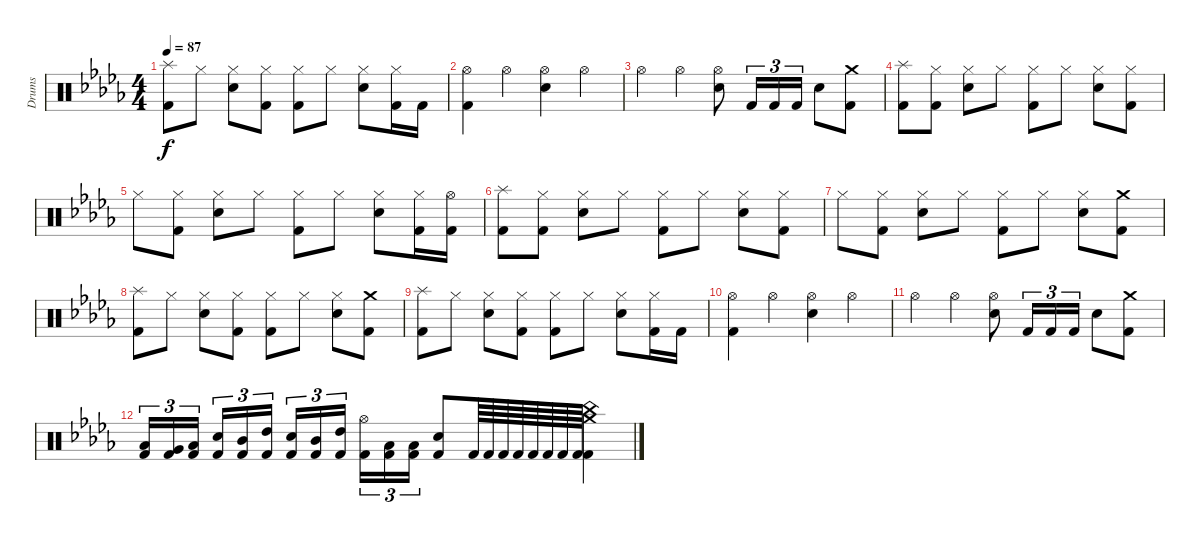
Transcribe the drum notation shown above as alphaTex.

\track ("Drums" "Drums") {instrument percussion}
\staff {score}
\articulation defaults
\ts (4 4)
\tempo 87
\clef neutral
\ks db
("Splash (hit)" "Kick (hit) 2").8{dy f} "Hi-Hat (closed)".8 ("Hi-Hat (closed)" "Electric Snare (hit)").8 ("Hi-Hat (closed)" "Kick (hit) 2").8 ("Hi-Hat (closed)" "Kick (hit) 2").8 "Hi-Hat (closed)".8 ("Hi-Hat (closed)" "Electric Snare (hit)").8 ("Hi-Hat (closed)" "Kick (hit) 2").16 "Kick (hit) 2".16 |
("Hi-Hat (open)" "Kick (hit) 2").4 "Hi-Hat (open)".4 ("Hi-Hat (open)" "Electric Snare (hit)").4 "Hi-Hat (open)".4 |
"Hi-Hat (open)".4 "Hi-Hat (open)".4 ("Hi-Hat (open)" "Electric Snare (hit)").8 "Kick (hit) 2".16{tu (3 2)} "Kick (hit) 2".16{tu (3 2)} "Kick (hit) 2".16{tu (3 2)} "Electric Snare (hit)".8 ("Crash medium (hit)" "Kick (hit) 2").8 |
("Splash (hit)" "Kick (hit) 2").8 ("Hi-Hat (closed)" "Kick (hit) 2").8 ("Hi-Hat (closed)" "Electric Snare (hit)").8 "Hi-Hat (closed)".8 ("Hi-Hat (closed)" "Kick (hit) 2").8 "Hi-Hat (closed)".8 ("Hi-Hat (closed)" "Electric Snare (hit)").8 ("Hi-Hat (closed)" "Kick (hit) 2").8 |
"Hi-Hat (closed)".8 ("Hi-Hat (closed)" "Kick (hit) 2").8 ("Hi-Hat (closed)" "Electric Snare (hit)").8 "Hi-Hat (closed)".8 ("Hi-Hat (closed)" "Kick (hit) 2").8 "Hi-Hat (closed)".8 ("Hi-Hat (closed)" "Electric Snare (hit)").8 ("Hi-Hat (closed)" "Kick (hit) 2").16 ("Hi-Hat (open)" "Kick (hit) 2").16 |
("Splash (hit)" "Kick (hit) 2").8 ("Hi-Hat (closed)" "Kick (hit) 2").8 ("Hi-Hat (closed)" "Electric Snare (hit)").8 "Hi-Hat (closed)".8 ("Hi-Hat (closed)" "Kick (hit) 2").8 "Hi-Hat (closed)".8 ("Hi-Hat (closed)" "Electric Snare (hit)").8 ("Hi-Hat (closed)" "Kick (hit) 2").8 |
"Hi-Hat (closed)".8 ("Hi-Hat (closed)" "Kick (hit) 2").8 ("Hi-Hat (closed)" "Electric Snare (hit)").8 "Hi-Hat (closed)".8 ("Hi-Hat (closed)" "Kick (hit) 2").8 "Hi-Hat (closed)".8 ("Hi-Hat (closed)" "Electric Snare (hit)").8 ("Crash medium (hit)" "Kick (hit) 2").8 |
("Splash (hit)" "Kick (hit) 2").8 "Hi-Hat (closed)".8 ("Hi-Hat (closed)" "Electric Snare (hit)").8 ("Hi-Hat (closed)" "Kick (hit) 2").8 ("Hi-Hat (closed)" "Kick (hit) 2").8 "Hi-Hat (closed)".8 ("Hi-Hat (closed)" "Electric Snare (hit)").8 ("Crash medium (hit)" "Kick (hit) 2").8 |
("Splash (hit)" "Kick (hit) 2").8 "Hi-Hat (closed)".8 ("Hi-Hat (closed)" "Electric Snare (hit)").8 ("Hi-Hat (closed)" "Kick (hit) 2").8 ("Hi-Hat (closed)" "Kick (hit) 2").8 "Hi-Hat (closed)".8 ("Hi-Hat (closed)" "Electric Snare (hit)").8 ("Hi-Hat (closed)" "Kick (hit) 2").16 "Kick (hit) 2".16 |
("Hi-Hat (open)" "Kick (hit) 2").4 "Hi-Hat (open)".4 ("Hi-Hat (open)" "Electric Snare (hit)").4 "Hi-Hat (open)".4 |
"Hi-Hat (open)".4 "Hi-Hat (open)".4 ("Hi-Hat (open)" "Electric Snare (hit)").8 "Kick (hit) 2".16{tu (3 2)} "Kick (hit) 2".16{tu (3 2)} "Kick (hit) 2".16{tu (3 2)} "Electric Snare (hit)".8 ("Crash medium (hit)" "Kick (hit) 2").8 |
("Low Tom (hit)" "Kick (hit) 2").16{tu (3 2)} ("Very Low Tom (hit)" "Kick (hit) 2").16{tu (3 2)} ("Low Floor Tom (hit)" "Kick (hit) 2").16{tu (3 2)} ("Electric Snare (hit)" "Kick (hit) 2").16{tu (3 2)} ("Mid Tom (hit)" "Kick (hit) 2").16{tu (3 2)} ("High Tom (hit)" "Kick (hit) 2").16{tu (3 2)} ("Electric Snare (hit)" "Kick (hit) 2").16{tu (3 2)} ("Mid Tom (hit)" "Kick (hit) 2").16{tu (3 2)} ("High Tom (hit)" "Kick (hit) 2").16{tu (3 2)} ("Hi-Hat (open)" "Kick (hit) 2").16{tu (3 2)} ("Low Tom (hit)" "Kick (hit) 2").16{tu (3 2)} ("Low Tom (hit)" "Kick (hit) 2").16{tu (3 2)} ("Electric Snare (hit)" "Kick (hit) 2").8 "Kick (hit) 2".64 "Kick (hit) 2".64 "Kick (hit) 2".64 "Kick (hit) 2".64 "Kick (hit) 2".64 "Kick (hit) 2".64 "Kick (hit) 2".64 "Kick (hit) 2".64 ("Crash medium (hit)" "China (hit)" "Kick (hit) 2").4{volume 0}
